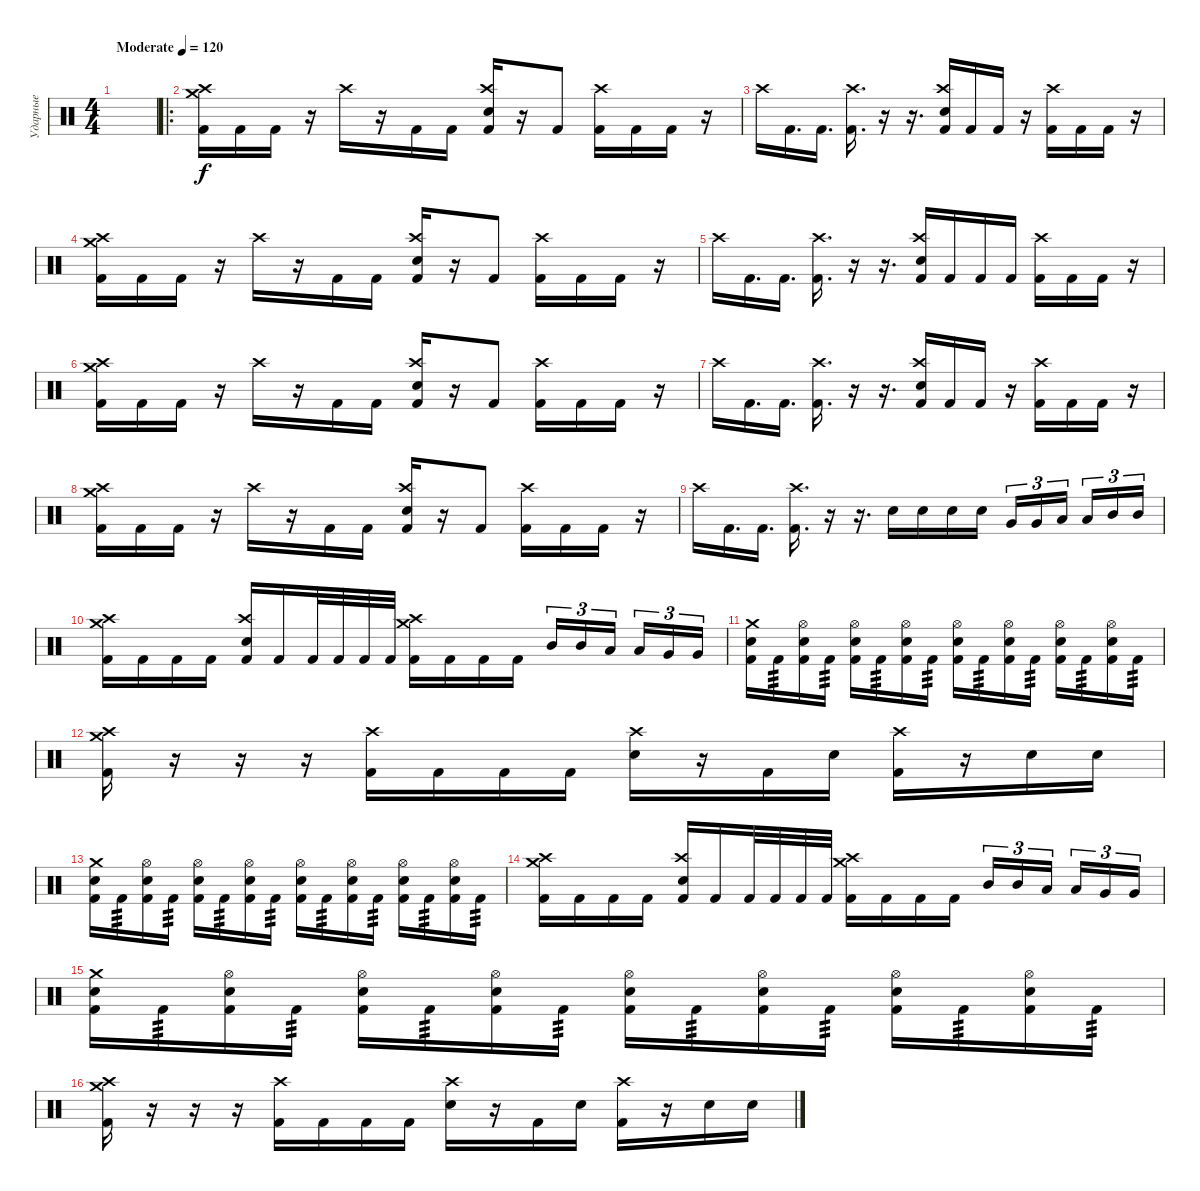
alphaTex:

\track ("Ударные" "Ударные") {instrument percussion}
\staff {score}
\articulation defaults
\ts (4 4)
\tempo (120 "Moderate")
\clef neutral
\ks c
|
\ro
("Kick (hit) 2" "Crash medium (hit)" "Crash high (hit)").16 "Kick (hit) 2".16 "Kick (hit) 2".16 r.16 "Crash high (hit)".16 r.16 "Kick (hit) 2".16 "Kick (hit) 2".16 ("Kick (hit) 2" "Snare (hit) 2" "Crash high (hit)").16 r.16 "Kick (hit) 2".8 ("Kick (hit) 2" "Crash high (hit)").16 "Kick (hit) 2".16 "Kick (hit) 2".16 r.16 |
"Crash high (hit)".16 "Kick (hit) 2".16{d} "Kick (hit) 2".16{d} ("Crash high (hit)" "Kick (hit) 2").16{d} r.16 r.16{d} ("Snare (hit) 2" "Crash high (hit)" "Kick (hit) 2").16 "Kick (hit) 2".16 "Kick (hit) 2".16 r.16 ("Crash high (hit)" "Kick (hit) 2").16 "Kick (hit) 2".16 "Kick (hit) 2".16 r.16 |
("Kick (hit) 2" "Crash medium (hit)" "Crash high (hit)").16 "Kick (hit) 2".16 "Kick (hit) 2".16 r.16 "Crash high (hit)".16 r.16 "Kick (hit) 2".16 "Kick (hit) 2".16 ("Kick (hit) 2" "Snare (hit) 2" "Crash high (hit)").16 r.16 "Kick (hit) 2".8 ("Kick (hit) 2" "Crash high (hit)").16 "Kick (hit) 2".16 "Kick (hit) 2".16 r.16 |
"Crash high (hit)".16 "Kick (hit) 2".16{d} "Kick (hit) 2".16{d} ("Crash high (hit)" "Kick (hit) 2").16{d} r.16 r.16{d} ("Snare (hit) 2" "Crash high (hit)" "Kick (hit) 2").16 "Kick (hit) 2".16 "Kick (hit) 2".16 "Kick (hit) 2".16 ("Crash high (hit)" "Kick (hit) 2").16 "Kick (hit) 2".16 "Kick (hit) 2".16 r.16 |
("Kick (hit) 2" "Crash medium (hit)" "Crash high (hit)").16 "Kick (hit) 2".16 "Kick (hit) 2".16 r.16 "Crash high (hit)".16 r.16 "Kick (hit) 2".16 "Kick (hit) 2".16 ("Kick (hit) 2" "Snare (hit) 2" "Crash high (hit)").16 r.16 "Kick (hit) 2".8 ("Kick (hit) 2" "Crash high (hit)").16 "Kick (hit) 2".16 "Kick (hit) 2".16 r.16 |
"Crash high (hit)".16 "Kick (hit) 2".16{d} "Kick (hit) 2".16{d} ("Crash high (hit)" "Kick (hit) 2").16{d} r.16 r.16{d} ("Snare (hit) 2" "Crash high (hit)" "Kick (hit) 2").16 "Kick (hit) 2".16 "Kick (hit) 2".16 r.16 ("Crash high (hit)" "Kick (hit) 2").16 "Kick (hit) 2".16 "Kick (hit) 2".16 r.16 |
("Kick (hit) 2" "Crash medium (hit)" "Crash high (hit)").16 "Kick (hit) 2".16 "Kick (hit) 2".16 r.16 "Crash high (hit)".16 r.16 "Kick (hit) 2".16 "Kick (hit) 2".16 ("Kick (hit) 2" "Snare (hit) 2" "Crash high (hit)").16 r.16 "Kick (hit) 2".8 ("Kick (hit) 2" "Crash high (hit)").16 "Kick (hit) 2".16 "Kick (hit) 2".16 r.16 |
"Crash high (hit)".16 "Kick (hit) 2".16{d} "Kick (hit) 2".16{d} ("Crash high (hit)" "Kick (hit) 2").16{d} r.16 r.16{d} "Snare (hit) 2".16 "Snare (hit) 2".16 "Snare (hit) 2".16 "Snare (hit) 2".16 "Very Low Tom (hit)".16{tu (3 2)} "Very Low Tom (hit)".16{tu (3 2)} "Low Tom (hit)".16{tu (3 2) beam splitsecondary} "Low Tom (hit)".16{tu (3 2)} "Mid Tom (hit)".16{tu (3 2)} "Mid Tom (hit)".16{tu (3 2)} |
("Crash medium (hit)" "Crash high (hit)" "Kick (hit) 2").16 "Kick (hit) 2".16 "Kick (hit) 2".16 "Kick (hit) 2".16 ("Crash high (hit)" "Snare (hit) 2" "Kick (hit) 2").16 "Kick (hit) 2".16 "Kick (hit) 2".32 "Kick (hit) 2".32 "Kick (hit) 2".32 "Kick (hit) 2".32 ("Crash medium (hit)" "Crash high (hit)" "Kick (hit) 2").16 "Kick (hit) 2".16 "Kick (hit) 2".16 "Kick (hit) 2".16 "Mid Tom (hit)".16{tu (3 2)} "Mid Tom (hit)".16{tu (3 2)} "Low Tom (hit)".16{tu (3 2) beam splitsecondary} "Low Tom (hit)".16{tu (3 2)} "Very Low Tom (hit)".16{tu (3 2)} "Very Low Tom (hit)".16{tu (3 2)} |
("Snare (hit) 2" "Crash medium (hit)" "Kick (hit) 2").16 "Kick (hit) 2".16{tp 3} ("Hi-Hat (open)" "Snare (hit) 2" "Kick (hit) 2").16 "Kick (hit) 2".16{tp 3} ("Hi-Hat (open)" "Snare (hit) 2" "Kick (hit) 2").16 "Kick (hit) 2".16{tp 3} ("Hi-Hat (open)" "Snare (hit) 2" "Kick (hit) 2").16 "Kick (hit) 2".16{tp 3} ("Hi-Hat (open)" "Snare (hit) 2" "Kick (hit) 2").16 "Kick (hit) 2".16{tp 3} ("Hi-Hat (open)" "Snare (hit) 2" "Kick (hit) 2").16 "Kick (hit) 2".16{tp 3} ("Hi-Hat (open)" "Snare (hit) 2" "Kick (hit) 2").16 "Kick (hit) 2".16{tp 3} ("Hi-Hat (open)" "Snare (hit) 2" "Kick (hit) 2").16 "Kick (hit) 2".16{tp 3} |
("Crash high (hit)" "Crash medium (hit)" "Kick (hit) 2").16 r.16 r.16 r.16 ("Crash high (hit)" "Kick (hit) 2").16 "Kick (hit) 2".16 "Kick (hit) 2".16 "Kick (hit) 2".16 ("Snare (hit) 2" "Crash high (hit)").16 r.16 "Kick (hit) 2".16 "Snare (hit) 2".16 ("Crash high (hit)" "Kick (hit) 2").16 r.16 "Snare (hit) 2".16 "Snare (hit) 2".16 |
("Snare (hit) 2" "Crash medium (hit)" "Kick (hit) 2").16 "Kick (hit) 2".16{tp 3} ("Hi-Hat (open)" "Snare (hit) 2" "Kick (hit) 2").16 "Kick (hit) 2".16{tp 3} ("Hi-Hat (open)" "Snare (hit) 2" "Kick (hit) 2").16 "Kick (hit) 2".16{tp 3} ("Hi-Hat (open)" "Snare (hit) 2" "Kick (hit) 2").16 "Kick (hit) 2".16{tp 3} ("Hi-Hat (open)" "Snare (hit) 2" "Kick (hit) 2").16 "Kick (hit) 2".16{tp 3} ("Hi-Hat (open)" "Snare (hit) 2" "Kick (hit) 2").16 "Kick (hit) 2".16{tp 3} ("Hi-Hat (open)" "Snare (hit) 2" "Kick (hit) 2").16 "Kick (hit) 2".16{tp 3} ("Hi-Hat (open)" "Snare (hit) 2" "Kick (hit) 2").16 "Kick (hit) 2".16{tp 3} |
("Crash medium (hit)" "Crash high (hit)" "Kick (hit) 2").16 "Kick (hit) 2".16 "Kick (hit) 2".16 "Kick (hit) 2".16 ("Crash high (hit)" "Snare (hit) 2" "Kick (hit) 2").16 "Kick (hit) 2".16 "Kick (hit) 2".32 "Kick (hit) 2".32 "Kick (hit) 2".32 "Kick (hit) 2".32 ("Crash medium (hit)" "Crash high (hit)" "Kick (hit) 2").16 "Kick (hit) 2".16 "Kick (hit) 2".16 "Kick (hit) 2".16 "Mid Tom (hit)".16{tu (3 2)} "Mid Tom (hit)".16{tu (3 2)} "Low Tom (hit)".16{tu (3 2) beam splitsecondary} "Low Tom (hit)".16{tu (3 2)} "Very Low Tom (hit)".16{tu (3 2)} "Very Low Tom (hit)".16{tu (3 2)} |
("Snare (hit) 2" "Crash medium (hit)" "Kick (hit) 2").16 "Kick (hit) 2".16{tp 3} ("Hi-Hat (open)" "Snare (hit) 2" "Kick (hit) 2").16 "Kick (hit) 2".16{tp 3} ("Hi-Hat (open)" "Snare (hit) 2" "Kick (hit) 2").16 "Kick (hit) 2".16{tp 3} ("Hi-Hat (open)" "Snare (hit) 2" "Kick (hit) 2").16 "Kick (hit) 2".16{tp 3} ("Hi-Hat (open)" "Snare (hit) 2" "Kick (hit) 2").16 "Kick (hit) 2".16{tp 3} ("Hi-Hat (open)" "Snare (hit) 2" "Kick (hit) 2").16 "Kick (hit) 2".16{tp 3} ("Hi-Hat (open)" "Snare (hit) 2" "Kick (hit) 2").16 "Kick (hit) 2".16{tp 3} ("Hi-Hat (open)" "Snare (hit) 2" "Kick (hit) 2").16 "Kick (hit) 2".16{tp 3} |
("Crash high (hit)" "Crash medium (hit)" "Kick (hit) 2").16 r.16 r.16 r.16 ("Crash high (hit)" "Kick (hit) 2").16 "Kick (hit) 2".16 "Kick (hit) 2".16 "Kick (hit) 2".16 ("Snare (hit) 2" "Crash high (hit)").16 r.16 "Kick (hit) 2".16 "Snare (hit) 2".16 ("Crash high (hit)" "Kick (hit) 2").16 r.16 "Snare (hit) 2".16 "Snare (hit) 2".16
